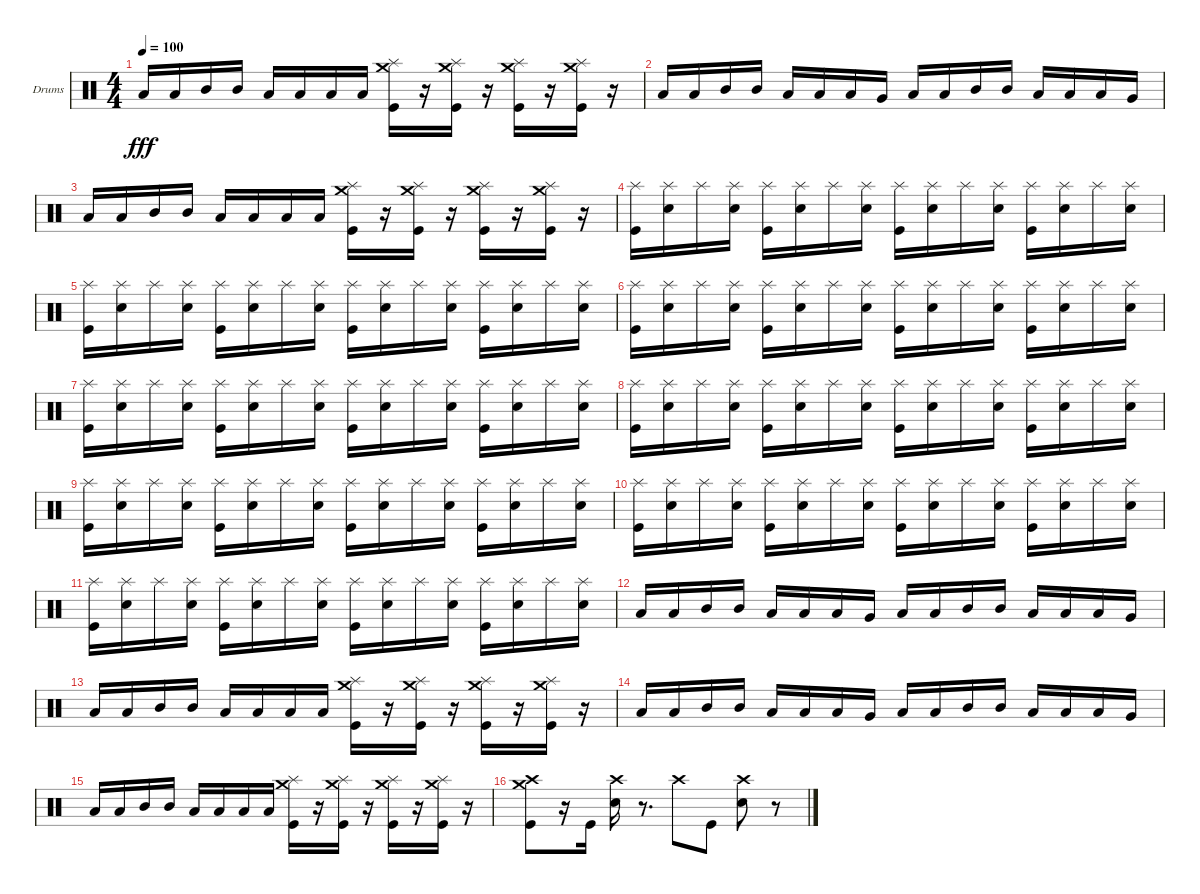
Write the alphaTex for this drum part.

\bracketExtendMode groupsimilarinstruments
\firstSystemTrackNameOrientation horizontal
\otherSystemsTrackNameOrientation horizontal
\track ("Lars Ulrich (Drum)" "Drums") {instrument percussion}
\staff {score}
\articulation defaults
\ts (4 4)
\tempo 100
\clef neutral
\scale
0.333333
\ks c "Low Tom (hit)".16{dy fff} "Low Tom (hit)".16 "Mid Tom (hit)".16 "Mid Tom (hit)".16 "Low Tom (hit)".16 "Low Tom (hit)".16 "Low Tom (hit)".16 "Low Tom (hit)".16
("Splash (hit)" "Crash medium (hit)" "Kick (hit)").16 r.16 ("Splash (hit)" "Crash medium (hit)" "Kick (hit)").16 r.16 ("Splash (hit)" "Crash medium (hit)" "Kick (hit)").16 r.16 ("Splash (hit)" "Crash medium (hit)" "Kick (hit)").16 r.16 |
\scale
0.333333 "Low Tom (hit)".16 "Low Tom (hit)".16 "Mid Tom (hit)".16 "Mid Tom (hit)".16 "Low Tom (hit)".16 "Low Tom (hit)".16 "Low Tom (hit)".16 "Very Low Tom (hit)".16 "Low Tom (hit)".16 "Low Tom (hit)".16 "Mid Tom (hit)".16 "Mid Tom (hit)".16 "Low Tom (hit)".16 "Low Tom (hit)".16 "Low Tom (hit)".16 "Very Low Tom (hit)".16 |
\scale
0.333333 "Low Tom (hit)".16 "Low Tom (hit)".16 "Mid Tom (hit)".16 "Mid Tom (hit)".16 "Low Tom (hit)".16 "Low Tom (hit)".16 "Low Tom (hit)".16 "Low Tom (hit)".16 ("Splash (hit)" "Crash medium (hit)" "Kick (hit)").16 r.16 ("Splash (hit)" "Crash medium (hit)" "Kick (hit)").16 r.16 ("Splash (hit)" "Crash medium (hit)" "Kick (hit)").16 r.16 ("Splash (hit)" "Crash medium (hit)" "Kick (hit)").16 r.16 |
\scale
0.333333 ("Splash (hit)" "Kick (hit)").16 ("Splash (hit)" "Snare (hit) 2").16 "Splash (hit)".16 ("Splash (hit)" "Snare (hit) 2").16 ("Splash (hit)" "Kick (hit)").16 ("Splash (hit)" "Snare (hit) 2").16 "Splash (hit)".16 ("Splash (hit)" "Snare (hit) 2").16 ("Splash (hit)" "Kick (hit)").16 ("Splash (hit)" "Snare (hit) 2").16 "Splash (hit)".16 ("Splash (hit)" "Snare (hit) 2").16 ("Splash (hit)" "Kick (hit)").16 ("Splash (hit)" "Snare (hit) 2").16 "Splash (hit)".16 ("Splash (hit)" "Snare (hit) 2").16 |
\scale
0.333333 ("Splash (hit)" "Kick (hit)").16 ("Splash (hit)" "Snare (hit) 2").16 "Splash (hit)".16 ("Splash (hit)" "Snare (hit) 2").16 ("Splash (hit)" "Kick (hit)").16 ("Splash (hit)" "Snare (hit) 2").16 "Splash (hit)".16 ("Splash (hit)" "Snare (hit) 2").16 ("Splash (hit)" "Kick (hit)").16 ("Splash (hit)" "Snare (hit) 2").16 "Splash (hit)".16 ("Splash (hit)" "Snare (hit) 2").16 ("Splash (hit)" "Kick (hit)").16 ("Splash (hit)" "Snare (hit) 2").16 "Splash (hit)".16 ("Splash (hit)" "Snare (hit) 2").16 |
\scale
0.333333 ("Splash (hit)" "Kick (hit)").16 ("Splash (hit)" "Snare (hit) 2").16 "Splash (hit)".16 ("Splash (hit)" "Snare (hit) 2").16 ("Splash (hit)" "Kick (hit)").16 ("Splash (hit)" "Snare (hit) 2").16 "Splash (hit)".16 ("Splash (hit)" "Snare (hit) 2").16 ("Splash (hit)" "Kick (hit)").16 ("Splash (hit)" "Snare (hit) 2").16 "Splash (hit)".16 ("Splash (hit)" "Snare (hit) 2").16 ("Splash (hit)" "Kick (hit)").16 ("Splash (hit)" "Snare (hit) 2").16 "Splash (hit)".16 ("Splash (hit)" "Snare (hit) 2").16 |
\scale
0.333333 ("Splash (hit)" "Kick (hit)").16 ("Splash (hit)" "Snare (hit) 2").16 "Splash (hit)".16 ("Splash (hit)" "Snare (hit) 2").16 ("Splash (hit)" "Kick (hit)").16 ("Splash (hit)" "Snare (hit) 2").16 "Splash (hit)".16 ("Splash (hit)" "Snare (hit) 2").16 ("Splash (hit)" "Kick (hit)").16 ("Splash (hit)" "Snare (hit) 2").16 "Splash (hit)".16 ("Splash (hit)" "Snare (hit) 2").16 ("Splash (hit)" "Kick (hit)").16 ("Splash (hit)" "Snare (hit) 2").16 "Splash (hit)".16 ("Splash (hit)" "Snare (hit) 2").16 |
\scale
0.333333 ("Splash (hit)" "Kick (hit)").16 ("Splash (hit)" "Snare (hit) 2").16 "Splash (hit)".16 ("Splash (hit)" "Snare (hit) 2").16 ("Splash (hit)" "Kick (hit)").16 ("Splash (hit)" "Snare (hit) 2").16 "Splash (hit)".16 ("Splash (hit)" "Snare (hit) 2").16 ("Splash (hit)" "Kick (hit)").16 ("Splash (hit)" "Snare (hit) 2").16 "Splash (hit)".16 ("Splash (hit)" "Snare (hit) 2").16 ("Splash (hit)" "Kick (hit)").16 ("Splash (hit)" "Snare (hit) 2").16 "Splash (hit)".16 ("Splash (hit)" "Snare (hit) 2").16 |
\scale
0.333333 ("Splash (hit)" "Kick (hit)").16 ("Splash (hit)" "Snare (hit) 2").16 "Splash (hit)".16 ("Splash (hit)" "Snare (hit) 2").16 ("Splash (hit)" "Kick (hit)").16 ("Splash (hit)" "Snare (hit) 2").16 "Splash (hit)".16 ("Splash (hit)" "Snare (hit) 2").16 ("Splash (hit)" "Kick (hit)").16 ("Splash (hit)" "Snare (hit) 2").16 "Splash (hit)".16 ("Splash (hit)" "Snare (hit) 2").16 ("Splash (hit)" "Kick (hit)").16 ("Splash (hit)" "Snare (hit) 2").16 "Splash (hit)".16 ("Splash (hit)" "Snare (hit) 2").16 |
\scale
0.333333 ("Splash (hit)" "Kick (hit)").16 ("Splash (hit)" "Snare (hit) 2").16 "Splash (hit)".16 ("Splash (hit)" "Snare (hit) 2").16 ("Splash (hit)" "Kick (hit)").16 ("Splash (hit)" "Snare (hit) 2").16 "Splash (hit)".16 ("Splash (hit)" "Snare (hit) 2").16 ("Splash (hit)" "Kick (hit)").16 ("Splash (hit)" "Snare (hit) 2").16 "Splash (hit)".16 ("Splash (hit)" "Snare (hit) 2").16 ("Splash (hit)" "Kick (hit)").16 ("Splash (hit)" "Snare (hit) 2").16 "Splash (hit)".16 ("Splash (hit)" "Snare (hit) 2").16 |
\scale
0.333333 ("Splash (hit)" "Kick (hit)").16 ("Splash (hit)" "Snare (hit) 2").16 "Splash (hit)".16 ("Splash (hit)" "Snare (hit) 2").16 ("Splash (hit)" "Kick (hit)").16 ("Splash (hit)" "Snare (hit) 2").16 "Splash (hit)".16 ("Splash (hit)" "Snare (hit) 2").16 ("Splash (hit)" "Kick (hit)").16 ("Splash (hit)" "Snare (hit) 2").16 "Splash (hit)".16 ("Splash (hit)" "Snare (hit) 2").16 ("Splash (hit)" "Kick (hit)").16 ("Splash (hit)" "Snare (hit) 2").16 "Splash (hit)".16 ("Splash (hit)" "Snare (hit) 2").16 |
\scale
0.333333 "Low Tom (hit)".16 "Low Tom (hit)".16 "Mid Tom (hit)".16 "Mid Tom (hit)".16 "Low Tom (hit)".16 "Low Tom (hit)".16 "Low Tom (hit)".16 "Very Low Tom (hit)".16 "Low Tom (hit)".16 "Low Tom (hit)".16 "Mid Tom (hit)".16 "Mid Tom (hit)".16 "Low Tom (hit)".16 "Low Tom (hit)".16 "Low Tom (hit)".16 "Very Low Tom (hit)".16 |
\scale
0.333333 "Low Tom (hit)".16 "Low Tom (hit)".16 "Mid Tom (hit)".16 "Mid Tom (hit)".16 "Low Tom (hit)".16 "Low Tom (hit)".16 "Low Tom (hit)".16 "Low Tom (hit)".16 ("Splash (hit)" "Crash medium (hit)" "Kick (hit)").16 r.16 ("Splash (hit)" "Crash medium (hit)" "Kick (hit)").16 r.16 ("Splash (hit)" "Crash medium (hit)" "Kick (hit)").16 r.16 ("Splash (hit)" "Crash medium (hit)" "Kick (hit)").16 r.16 |
\scale
0.333333 "Low Tom (hit)".16 "Low Tom (hit)".16 "Mid Tom (hit)".16 "Mid Tom (hit)".16 "Low Tom (hit)".16 "Low Tom (hit)".16 "Low Tom (hit)".16 "Very Low Tom (hit)".16 "Low Tom (hit)".16 "Low Tom (hit)".16 "Mid Tom (hit)".16 "Mid Tom (hit)".16 "Low Tom (hit)".16 "Low Tom (hit)".16 "Low Tom (hit)".16 "Very Low Tom (hit)".16 |
\scale
0.333333 "Low Tom (hit)".16 "Low Tom (hit)".16 "Mid Tom (hit)".16 "Mid Tom (hit)".16 "Low Tom (hit)".16 "Low Tom (hit)".16 "Low Tom (hit)".16 "Low Tom (hit)".16 ("Splash (hit)" "Crash medium (hit)" "Kick (hit)").16 r.16 ("Splash (hit)" "Crash medium (hit)" "Kick (hit)").16 r.16 ("Splash (hit)" "Crash medium (hit)" "Kick (hit)").16 r.16 ("Splash (hit)" "Crash medium (hit)" "Kick (hit)").16 r.16 |
\scale
0.333333 ("Crash medium (hit)" "Crash high (hit)" "Kick (hit)").8 r.16 "Kick (hit)".16 ("Crash high (hit)" "Snare (hit) 2").16 r.8{d} "Crash high (hit)".8 "Kick (hit)".8 ("Crash high (hit)" "Snare (hit) 2").8 r.8
